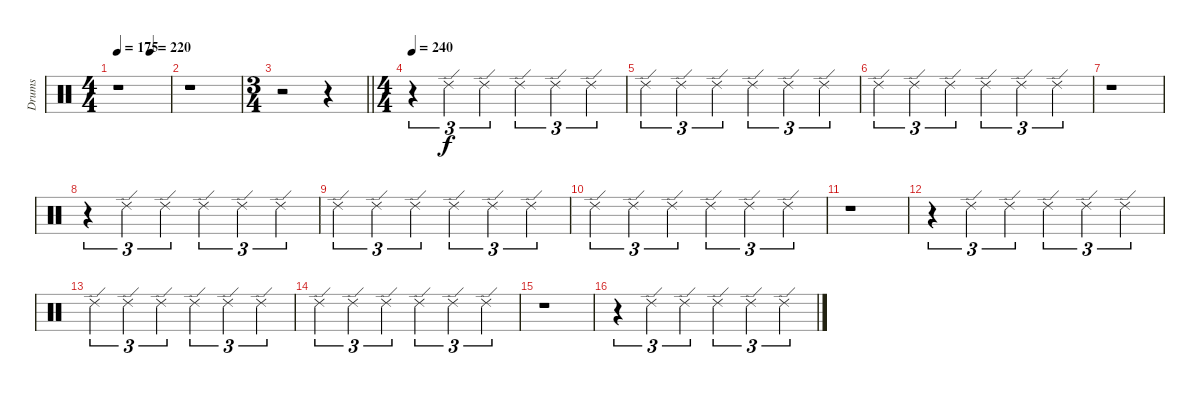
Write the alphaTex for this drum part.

\track ("Drums" "Drums") {instrument percussion}
\staff {score}
\articulation defaults
\ts (4 4)
\tempo 175
\tempo (220 0.625)
\clef neutral
\ks c
r.1{dy f} |
r.1 |
\ts (3 4)
\barLineRight lightlight
r.2 r.4 |
\ts (4 4)
\tempo 240
r.4{tu (3 2)} "Ride (edge) 2".4{tu (3 2)} "Ride (edge) 2".4{tu (3 2)} "Ride (edge) 2".4{tu (3 2)} "Ride (edge) 2".4{tu (3 2)} "Ride (edge) 2".4{tu (3 2)} |
"Ride (edge) 2".4{tu (3 2)} "Ride (edge) 2".4{tu (3 2)} "Ride (edge) 2".4{tu (3 2)} "Ride (edge) 2".4{tu (3 2)} "Ride (edge) 2".4{tu (3 2)} "Ride (edge) 2".4{tu (3 2)} |
"Ride (edge) 2".4{tu (3 2)} "Ride (edge) 2".4{tu (3 2)} "Ride (edge) 2".4{tu (3 2)} "Ride (edge) 2".4{tu (3 2)} "Ride (edge) 2".4{tu (3 2)} "Ride (edge) 2".4{tu (3 2)} |
r.1 |
r.4{tu (3 2)} "Ride (edge) 2".4{tu (3 2)} "Ride (edge) 2".4{tu (3 2)} "Ride (edge) 2".4{tu (3 2)} "Ride (edge) 2".4{tu (3 2)} "Ride (edge) 2".4{tu (3 2)} |
"Ride (edge) 2".4{tu (3 2)} "Ride (edge) 2".4{tu (3 2)} "Ride (edge) 2".4{tu (3 2)} "Ride (edge) 2".4{tu (3 2)} "Ride (edge) 2".4{tu (3 2)} "Ride (edge) 2".4{tu (3 2)} |
"Ride (edge) 2".4{tu (3 2)} "Ride (edge) 2".4{tu (3 2)} "Ride (edge) 2".4{tu (3 2)} "Ride (edge) 2".4{tu (3 2)} "Ride (edge) 2".4{tu (3 2)} "Ride (edge) 2".4{tu (3 2)} |
r.1 |
r.4{tu (3 2)} "Ride (edge) 2".4{tu (3 2)} "Ride (edge) 2".4{tu (3 2)} "Ride (edge) 2".4{tu (3 2)} "Ride (edge) 2".4{tu (3 2)} "Ride (edge) 2".4{tu (3 2)} |
"Ride (edge) 2".4{tu (3 2)} "Ride (edge) 2".4{tu (3 2)} "Ride (edge) 2".4{tu (3 2)} "Ride (edge) 2".4{tu (3 2)} "Ride (edge) 2".4{tu (3 2)} "Ride (edge) 2".4{tu (3 2)} |
"Ride (edge) 2".4{tu (3 2)} "Ride (edge) 2".4{tu (3 2)} "Ride (edge) 2".4{tu (3 2)} "Ride (edge) 2".4{tu (3 2)} "Ride (edge) 2".4{tu (3 2)} "Ride (edge) 2".4{tu (3 2)} |
r.1 |
r.4{tu (3 2)} "Ride (edge) 2".4{tu (3 2)} "Ride (edge) 2".4{tu (3 2)} "Ride (edge) 2".4{tu (3 2)} "Ride (edge) 2".4{tu (3 2)} "Ride (edge) 2".4{tu (3 2)}
